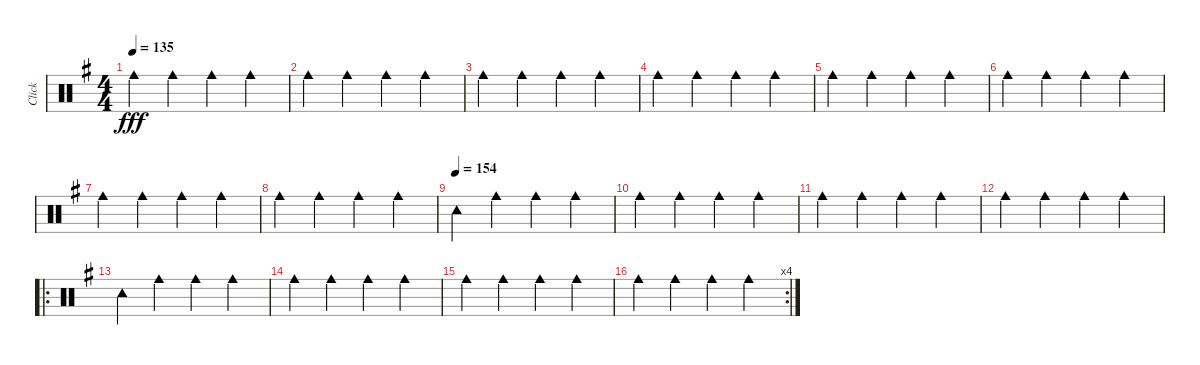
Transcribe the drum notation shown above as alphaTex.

\track ("Click" "Click") {mute instrument percussion}
\staff {score}
\articulation defaults
\ts (4 4)
\tempo 135
\clef neutral
\ks g "Cowbell medium (hit)".4{dy fff} "Cowbell medium (hit)".4 "Cowbell medium (hit)".4 "Cowbell medium (hit)".4
|
"Cowbell medium (hit)".4 "Cowbell medium (hit)".4 "Cowbell medium (hit)".4 "Cowbell medium (hit)".4 |
"Cowbell medium (hit)".4 "Cowbell medium (hit)".4 "Cowbell medium (hit)".4 "Cowbell medium (hit)".4 |
"Cowbell medium (hit)".4 "Cowbell medium (hit)".4 "Cowbell medium (hit)".4 "Cowbell medium (hit)".4 |
"Cowbell medium (hit)".4 "Cowbell medium (hit)".4 "Cowbell medium (hit)".4 "Cowbell medium (hit)".4 |
"Cowbell medium (hit)".4 "Cowbell medium (hit)".4 "Cowbell medium (hit)".4 "Cowbell medium (hit)".4 |
"Cowbell medium (hit)".4 "Cowbell medium (hit)".4 "Cowbell medium (hit)".4 "Cowbell medium (hit)".4 |
"Cowbell medium (hit)".4 "Cowbell medium (hit)".4 "Cowbell medium (hit)".4 "Cowbell medium (hit)".4 |
\tempo (154)
"Tambourine (hit)".4 "Cowbell medium (hit)".4 "Cowbell medium (hit)".4 "Cowbell medium (hit)".4 |
"Cowbell medium (hit)".4 "Cowbell medium (hit)".4 "Cowbell medium (hit)".4 "Cowbell medium (hit)".4 |
"Cowbell medium (hit)".4 "Cowbell medium (hit)".4 "Cowbell medium (hit)".4 "Cowbell medium (hit)".4 |
"Cowbell medium (hit)".4 "Cowbell medium (hit)".4 "Cowbell medium (hit)".4 "Cowbell medium (hit)".4 |
\ro "Tambourine (hit)".4 "Cowbell medium (hit)".4 "Cowbell medium (hit)".4 "Cowbell medium (hit)".4
|
"Cowbell medium (hit)".4 "Cowbell medium (hit)".4 "Cowbell medium (hit)".4 "Cowbell medium (hit)".4 |
"Cowbell medium (hit)".4 "Cowbell medium (hit)".4 "Cowbell medium (hit)".4 "Cowbell medium (hit)".4 |
\rc 4 "Cowbell medium (hit)".4 "Cowbell medium (hit)".4 "Cowbell medium (hit)".4 "Cowbell medium (hit)".4
